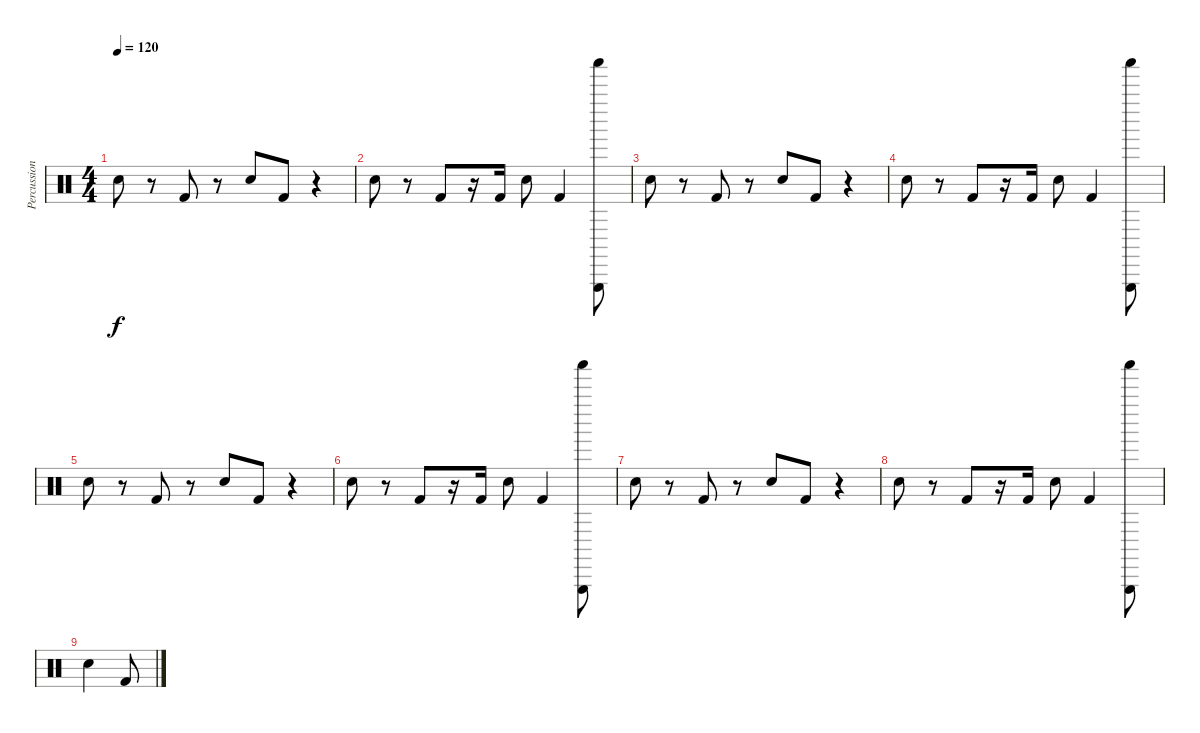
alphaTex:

\track ("Percussion" "Percussion") {instrument percussion}
\staff {score}
\articulation defaults
\ts (4 4)
\tempo 120
\clef neutral
\ks c "Hand Clap (hit)".8{dy f}
r.8 "Kick (hit) 2".8 r.8 "Hand Clap (hit)".8 "Kick (hit) 2".8 r.4 |
"Hand Clap (hit)".8 r.8 "Kick (hit) 2".8 r.16 "Kick (hit) 2".16 "Hand Clap (hit)".8 "Kick (hit) 2".4 ("Shaker (hit)" "Triangle (hit)").8 |
"Hand Clap (hit)".8 r.8 "Kick (hit) 2".8 r.8 "Hand Clap (hit)".8 "Kick (hit) 2".8 r.4 |
"Hand Clap (hit)".8 r.8 "Kick (hit) 2".8 r.16 "Kick (hit) 2".16 "Hand Clap (hit)".8 "Kick (hit) 2".4 ("Shaker (hit)" "Triangle (hit)").8 |
"Hand Clap (hit)".8 r.8 "Kick (hit) 2".8 r.8 "Hand Clap (hit)".8 "Kick (hit) 2".8 r.4 |
"Hand Clap (hit)".8 r.8 "Kick (hit) 2".8 r.16 "Kick (hit) 2".16 "Hand Clap (hit)".8 "Kick (hit) 2".4 ("Shaker (hit)" "Triangle (hit)").8 |
"Hand Clap (hit)".8 r.8 "Kick (hit) 2".8 r.8 "Hand Clap (hit)".8 "Kick (hit) 2".8 r.4 |
"Hand Clap (hit)".8 r.8 "Kick (hit) 2".8 r.16 "Kick (hit) 2".16 "Hand Clap (hit)".8 "Kick (hit) 2".4 ("Shaker (hit)" "Triangle (hit)").8 |
"Hand Clap (hit)".4 "Kick (hit) 2".8
